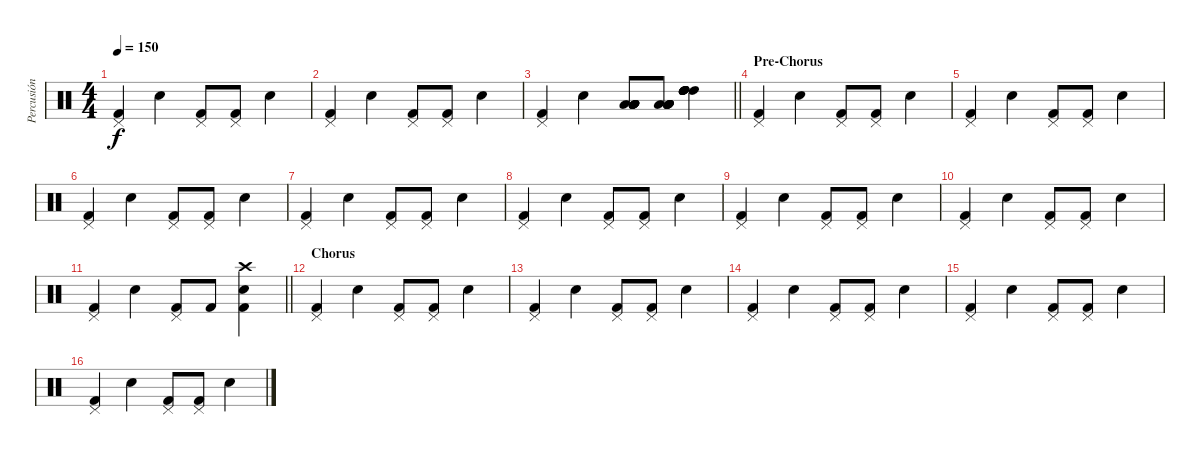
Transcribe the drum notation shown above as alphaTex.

\track ("Percusión" "Percusión") {instrument percussion}
\staff {score}
\articulation defaults
\ts (4 4)
\tempo 150
\clef neutral
\ks c
("Pedal Hi-Hat (hit)" "Kick (hit) 2").4{dy f} "Snare (hit) 2".4 ("Pedal Hi-Hat (hit)" "Kick (hit) 2").8 ("Pedal Hi-Hat (hit)" "Kick (hit) 2").8 "Snare (hit) 2".4 |
("Pedal Hi-Hat (hit)" "Kick (hit) 2").4 "Snare (hit) 2".4 ("Pedal Hi-Hat (hit)" "Kick (hit) 2").8 ("Pedal Hi-Hat (hit)" "Kick (hit) 2").8 "Snare (hit) 2".4 |
\barLineRight lightlight
("Pedal Hi-Hat (hit)" "Kick (hit) 2").4 "Snare (hit) 2".4 ("Low Tom (hit)" "Low Tom (hit)" "Low Tom (hit)" "Low Tom (hit)" "Low Tom (hit)" "Low Tom (hit)").8 ("Low Tom (hit)" "Low Tom (hit)" "Low Tom (hit)" "Low Tom (hit)" "Low Tom (hit)" "Low Tom (hit)").8 ("High Tom (hit)" "High Tom (hit)" "High Tom (hit)" "High Tom (hit)" "High Tom (hit)" "High Tom (hit)").4 |
\section ("" "Pre-Chorus")
("Pedal Hi-Hat (hit)" "Kick (hit) 2").4 "Snare (hit) 2".4 ("Pedal Hi-Hat (hit)" "Kick (hit) 2").8 ("Pedal Hi-Hat (hit)" "Kick (hit) 2").8 "Snare (hit) 2".4 |
("Pedal Hi-Hat (hit)" "Kick (hit) 2").4 "Snare (hit) 2".4 ("Pedal Hi-Hat (hit)" "Kick (hit) 2").8 ("Pedal Hi-Hat (hit)" "Kick (hit) 2").8 "Snare (hit) 2".4 |
("Pedal Hi-Hat (hit)" "Kick (hit) 2").4 "Snare (hit) 2".4 ("Pedal Hi-Hat (hit)" "Kick (hit) 2").8 ("Pedal Hi-Hat (hit)" "Kick (hit) 2").8 "Snare (hit) 2".4 |
("Pedal Hi-Hat (hit)" "Kick (hit) 2").4 "Snare (hit) 2".4 ("Pedal Hi-Hat (hit)" "Kick (hit) 2").8 ("Pedal Hi-Hat (hit)" "Kick (hit) 2").8 "Snare (hit) 2".4 |
("Pedal Hi-Hat (hit)" "Kick (hit) 2").4 "Snare (hit) 2".4 ("Pedal Hi-Hat (hit)" "Kick (hit) 2").8 ("Pedal Hi-Hat (hit)" "Kick (hit) 2").8 "Snare (hit) 2".4 |
("Pedal Hi-Hat (hit)" "Kick (hit) 2").4 "Snare (hit) 2".4 ("Pedal Hi-Hat (hit)" "Kick (hit) 2").8 ("Pedal Hi-Hat (hit)" "Kick (hit) 2").8 "Snare (hit) 2".4 |
("Pedal Hi-Hat (hit)" "Kick (hit) 2").4 "Snare (hit) 2".4 ("Pedal Hi-Hat (hit)" "Kick (hit) 2").8 ("Pedal Hi-Hat (hit)" "Kick (hit) 2").8 "Snare (hit) 2".4 |
\barLineRight lightlight
("Pedal Hi-Hat (hit)" "Kick (hit) 2").4 "Snare (hit) 2".4 ("Pedal Hi-Hat (hit)" "Kick (hit) 2").8 "Kick (hit) 2".8 ("Crash high (hit)" "Snare (hit) 2" "Kick (hit) 2").4 |
\section ("" "Chorus")
("Pedal Hi-Hat (hit)" "Kick (hit) 2").4 "Snare (hit) 2".4 ("Pedal Hi-Hat (hit)" "Kick (hit) 2").8 ("Pedal Hi-Hat (hit)" "Kick (hit) 2").8 "Snare (hit) 2".4 |
("Pedal Hi-Hat (hit)" "Kick (hit) 2").4 "Snare (hit) 2".4 ("Pedal Hi-Hat (hit)" "Kick (hit) 2").8 ("Pedal Hi-Hat (hit)" "Kick (hit) 2").8 "Snare (hit) 2".4 |
("Pedal Hi-Hat (hit)" "Kick (hit) 2").4 "Snare (hit) 2".4 ("Pedal Hi-Hat (hit)" "Kick (hit) 2").8 ("Pedal Hi-Hat (hit)" "Kick (hit) 2").8 "Snare (hit) 2".4 |
("Pedal Hi-Hat (hit)" "Kick (hit) 2").4 "Snare (hit) 2".4 ("Pedal Hi-Hat (hit)" "Kick (hit) 2").8 ("Pedal Hi-Hat (hit)" "Kick (hit) 2").8 "Snare (hit) 2".4 |
("Pedal Hi-Hat (hit)" "Kick (hit) 2").4 "Snare (hit) 2".4 ("Pedal Hi-Hat (hit)" "Kick (hit) 2").8 ("Pedal Hi-Hat (hit)" "Kick (hit) 2").8 "Snare (hit) 2".4
